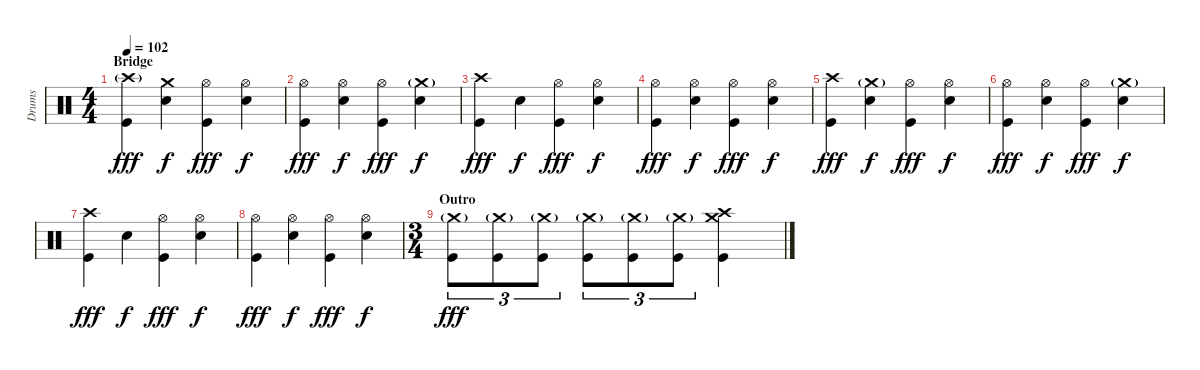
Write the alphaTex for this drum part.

\track ("Drums" "Drums") {instrument percussion}
\staff {score}
\articulation defaults
\ts (4 4)
\section ("" "Bridge")
\tempo 102
\clef neutral
\ks c
("Crash high (hit)"{g} "Kick (hit)").4{dy fff} ("Crash medium (hit)" "Snare (hit) 2").4{dy f} ("Hi-Hat (open)" "Kick (hit)").4{dy fff} ("Hi-Hat (open)" "Snare (hit) 2").4{dy f} |
("Hi-Hat (open)" "Kick (hit)").4{dy fff} ("Hi-Hat (open)" "Snare (hit) 2").4{dy f} ("Hi-Hat (open)" "Kick (hit)").4{dy fff} ("Crash medium (hit)"{g} "Snare (hit) 2").4{dy f} |
("Crash high (hit)" "Kick (hit)").4{dy fff} "Snare (hit) 2".4{dy f} ("Hi-Hat (open)" "Kick (hit)").4{dy fff} ("Hi-Hat (open)" "Snare (hit) 2").4{dy f} |
("Hi-Hat (open)" "Kick (hit)").4{dy fff} ("Hi-Hat (open)" "Snare (hit) 2").4{dy f} ("Hi-Hat (open)" "Kick (hit)").4{dy fff} ("Hi-Hat (open)" "Snare (hit) 2").4{dy f} |
("Crash high (hit)" "Kick (hit)").4{dy fff} ("Crash medium (hit)"{g} "Snare (hit) 2").4{dy f} ("Hi-Hat (open)" "Kick (hit)").4{dy fff} ("Hi-Hat (open)" "Snare (hit) 2").4{dy f} |
("Hi-Hat (open)" "Kick (hit)").4{dy fff} ("Hi-Hat (open)" "Snare (hit) 2").4{dy f} ("Hi-Hat (open)" "Kick (hit)").4{dy fff} ("Crash medium (hit)"{g} "Snare (hit) 2").4{dy f} |
("Crash high (hit)" "Kick (hit)").4{dy fff} "Snare (hit) 2".4{dy f} ("Hi-Hat (open)" "Kick (hit)").4{dy fff} ("Hi-Hat (open)" "Snare (hit) 2").4{dy f} |
("Hi-Hat (open)" "Kick (hit)").4{dy fff} ("Hi-Hat (open)" "Snare (hit) 2").4{dy f} ("Hi-Hat (open)" "Kick (hit)").4{dy fff} ("Hi-Hat (open)" "Snare (hit) 2").4{dy f} |
\ts (3 4)
\section ("" "Outro")
("Crash medium (hit)"{g} "Kick (hit)").8{tu (3 2) dy fff} ("Crash medium (hit)"{g} "Kick (hit)").8{tu (3 2)} ("Crash medium (hit)"{g} "Kick (hit)").8{tu (3 2)} ("Crash medium (hit)"{g} "Kick (hit)").8{tu (3 2)} ("Crash medium (hit)"{g} "Kick (hit)").8{tu (3 2)} ("Crash medium (hit)"{g} "Kick (hit)").8{tu (3 2)} ("Crash medium (hit)" "Crash high (hit)" "Kick (hit)").4
